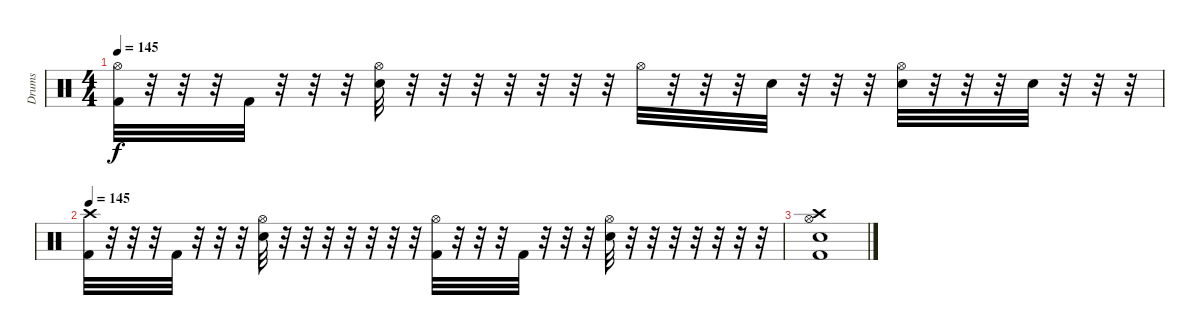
\track ("Drums" "Drums") {instrument percussion}
\staff {score}
\articulation defaults
\ts (4 4)
\tempo 145
\clef neutral
\ks c
("Hi-Hat (open)" "Kick (hit) 2").32{dy f} r.32 r.32 r.32 "Kick (hit) 2".32 r.32 r.32 r.32 ("Hi-Hat (open)" "Snare (hit) 2").32 r.32 r.32 r.32 r.32 r.32 r.32 r.32 "Hi-Hat (open)".32 r.32 r.32 r.32 "Snare (hit) 2".32 r.32 r.32 r.32 ("Hi-Hat (open)" "Snare (hit) 2").32 r.32 r.32 r.32 "Snare (hit) 2".32 r.32 r.32 r.32 |
\tempo 145
("Crash high (hit)" "Kick (hit) 2").32 r.32 r.32 r.32 "Kick (hit) 2".32 r.32 r.32 r.32 ("Hi-Hat (open)" "Snare (hit) 2").32 r.32 r.32 r.32 r.32 r.32 r.32 r.32 ("Hi-Hat (open)" "Kick (hit) 2").32 r.32 r.32 r.32 "Kick (hit) 2".32 r.32 r.32 r.32 ("Hi-Hat (open)" "Snare (hit) 2").32 r.32 r.32 r.32 r.32 r.32 r.32 r.32 |
("Crash high (hit)" "Hi-Hat (open)" "Snare (hit) 2" "Kick (hit) 2").1
